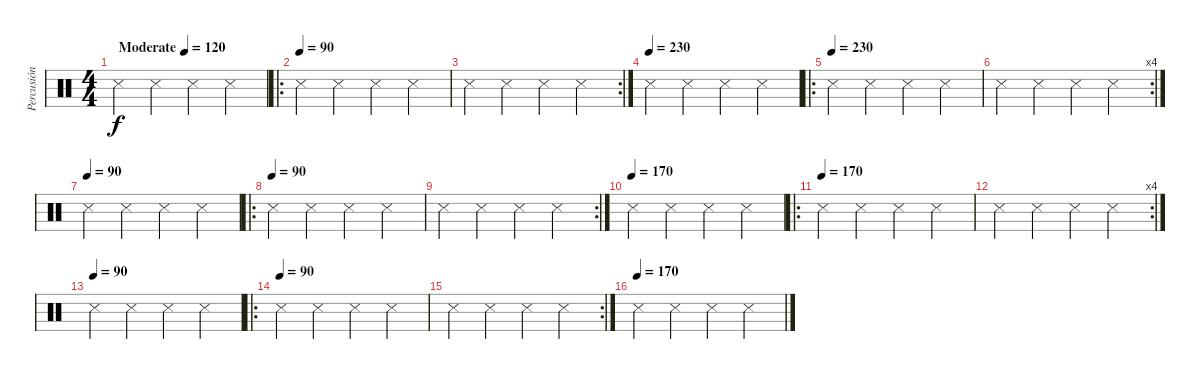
\track ("Percusión" "Percusión") {instrument percussion}
\staff {score}
\articulation defaults
\ts (4 4)
\tempo (120 "Moderate")
\tempo 90
\tempo (120 "Moderate")
\clef neutral
\ks c "Metronome (hit)".4{dy f} "Metronome (hit)".4 "Metronome (hit)".4 "Metronome (hit)".4
|
\ro
\tempo (90)
"Metronome (hit)".4 "Metronome (hit)".4 "Metronome (hit)".4 "Metronome (hit)".4 |
\rc 2 "Metronome (hit)".4 "Metronome (hit)".4 "Metronome (hit)".4 "Metronome (hit)".4
|
\tempo (230)
"Metronome (hit)".4 "Metronome (hit)".4 "Metronome (hit)".4 "Metronome (hit)".4 |
\ro
\tempo (230)
"Metronome (hit)".4 "Metronome (hit)".4 "Metronome (hit)".4 "Metronome (hit)".4 |
\rc 4 "Metronome (hit)".4 "Metronome (hit)".4 "Metronome (hit)".4 "Metronome (hit)".4
|
\tempo (90)
"Metronome (hit)".4 "Metronome (hit)".4 "Metronome (hit)".4 "Metronome (hit)".4 |
\ro
\tempo (90)
"Metronome (hit)".4 "Metronome (hit)".4 "Metronome (hit)".4 "Metronome (hit)".4 |
\rc 2 "Metronome (hit)".4 "Metronome (hit)".4 "Metronome (hit)".4 "Metronome (hit)".4
|
\tempo (170)
"Metronome (hit)".4 "Metronome (hit)".4 "Metronome (hit)".4 "Metronome (hit)".4 |
\ro
\tempo (170)
"Metronome (hit)".4 "Metronome (hit)".4 "Metronome (hit)".4 "Metronome (hit)".4 |
\rc 4 "Metronome (hit)".4 "Metronome (hit)".4 "Metronome (hit)".4 "Metronome (hit)".4
|
\tempo (90)
"Metronome (hit)".4 "Metronome (hit)".4 "Metronome (hit)".4 "Metronome (hit)".4 |
\ro
\tempo (90)
"Metronome (hit)".4 "Metronome (hit)".4 "Metronome (hit)".4 "Metronome (hit)".4 |
\rc 2 "Metronome (hit)".4 "Metronome (hit)".4 "Metronome (hit)".4 "Metronome (hit)".4
|
\tempo (170)
"Metronome (hit)".4 "Metronome (hit)".4 "Metronome (hit)".4 "Metronome (hit)".4
